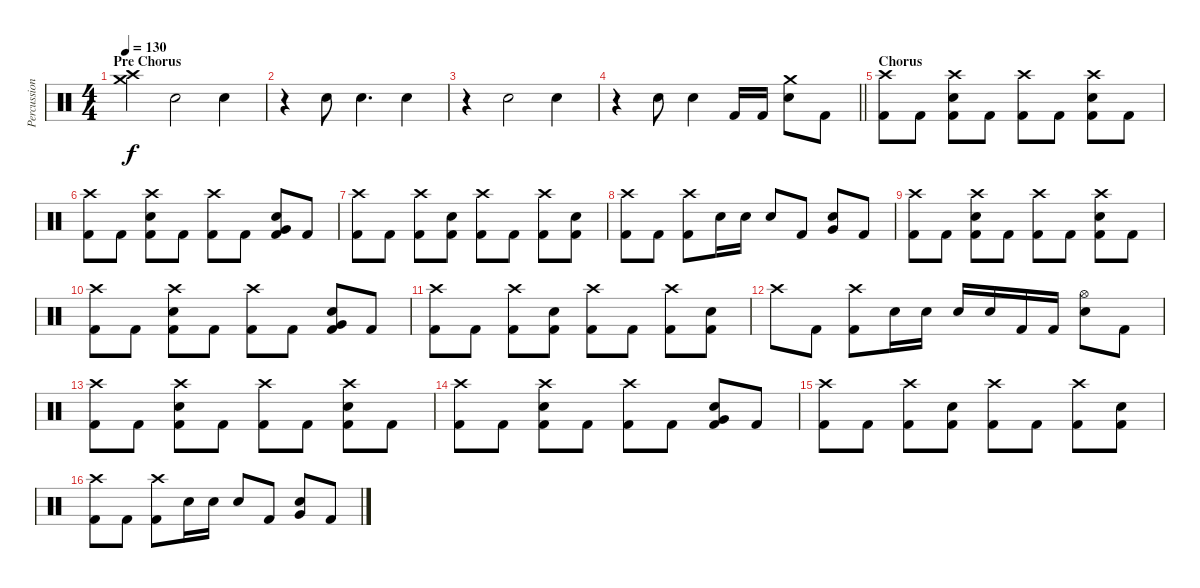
\track ("Percussion" "Percussion") {instrument percussion}
\staff {score}
\articulation defaults
\ts (4 4)
\section ("" "Pre Chorus")
\tempo 130
\clef neutral
\ks c
("Crash high (hit)" "Crash medium (hit)").4{dy f} "Hand Clap (hit)".2 "Hand Clap (hit)".4 |
r.4 "Hand Clap (hit)".8 "Hand Clap (hit)".4{d} "Hand Clap (hit)".4 |
r.4 "Hand Clap (hit)".2 "Hand Clap (hit)".4 |
\barLineRight lightlight
r.4 "Hand Clap (hit)".8 "Hand Clap (hit)".4 "Kick (hit) 2".16 "Kick (hit) 2".16 ("Crash medium (hit)" "Electric Snare (hit)").8 "Kick (hit) 2".8 |
\section ("" "Chorus")
("Crash high (hit)" "Kick (hit) 2").8 "Kick (hit) 2".8 ("Crash high (hit)" "Electric Snare (hit)" "Kick (hit) 2").8 "Kick (hit) 2".8 ("Crash high (hit)" "Kick (hit) 2").8 "Kick (hit) 2".8 ("Crash high (hit)" "Electric Snare (hit)" "Kick (hit) 2").8 "Kick (hit) 2".8 |
("Crash high (hit)" "Kick (hit) 2").8 "Kick (hit) 2".8 ("Crash high (hit)" "Electric Snare (hit)" "Kick (hit) 2").8 "Kick (hit) 2".8 ("Crash high (hit)" "Kick (hit) 2").8 "Kick (hit) 2".8 ("Very Low Tom (hit)" "Electric Snare (hit)" "Kick (hit) 2").8 "Kick (hit) 2".8 |
("Crash high (hit)" "Kick (hit) 2").8 "Kick (hit) 2".8 ("Crash high (hit)" "Kick (hit) 2").8 ("Electric Snare (hit)" "Kick (hit) 2").8 ("Crash high (hit)" "Kick (hit) 2").8 "Kick (hit) 2".8 ("Crash high (hit)" "Kick (hit) 2").8 ("Electric Snare (hit)" "Kick (hit) 2").8 |
("Crash high (hit)" "Kick (hit) 2").8 "Kick (hit) 2".8 ("Crash high (hit)" "Kick (hit) 2").8 "Electric Snare (hit)".16 "Electric Snare (hit)".16 "Electric Snare (hit)".8 "Kick (hit) 2".8 ("Very Low Tom (hit)" "Electric Snare (hit)").8 "Kick (hit) 2".8 |
("Crash high (hit)" "Kick (hit) 2").8 "Kick (hit) 2".8 ("Crash high (hit)" "Electric Snare (hit)" "Kick (hit) 2").8 "Kick (hit) 2".8 ("Crash high (hit)" "Kick (hit) 2").8 "Kick (hit) 2".8 ("Crash high (hit)" "Electric Snare (hit)" "Kick (hit) 2").8 "Kick (hit) 2".8 |
("Crash high (hit)" "Kick (hit) 2").8 "Kick (hit) 2".8 ("Crash high (hit)" "Electric Snare (hit)" "Kick (hit) 2").8 "Kick (hit) 2".8 ("Crash high (hit)" "Kick (hit) 2").8 "Kick (hit) 2".8 ("Very Low Tom (hit)" "Electric Snare (hit)" "Kick (hit) 2").8 "Kick (hit) 2".8 |
("Crash high (hit)" "Kick (hit) 2").8 "Kick (hit) 2".8 ("Crash high (hit)" "Kick (hit) 2").8 ("Electric Snare (hit)" "Kick (hit) 2").8 ("Crash high (hit)" "Kick (hit) 2").8 "Kick (hit) 2".8 ("Crash high (hit)" "Kick (hit) 2").8 ("Electric Snare (hit)" "Kick (hit) 2").8 |
"Crash high (hit)".8 "Kick (hit) 2".8 ("Crash high (hit)" "Kick (hit) 2").8 "Electric Snare (hit)".16 "Electric Snare (hit)".16 "Electric Snare (hit)".16 "Electric Snare (hit)".16 "Kick (hit) 2".16 "Kick (hit) 2".16 ("Hi-Hat (open)" "Electric Snare (hit)").8 "Kick (hit) 2".8 |
("Crash high (hit)" "Kick (hit) 2").8 "Kick (hit) 2".8 ("Crash high (hit)" "Electric Snare (hit)" "Kick (hit) 2").8 "Kick (hit) 2".8 ("Crash high (hit)" "Kick (hit) 2").8 "Kick (hit) 2".8 ("Crash high (hit)" "Electric Snare (hit)" "Kick (hit) 2").8 "Kick (hit) 2".8 |
("Crash high (hit)" "Kick (hit) 2").8 "Kick (hit) 2".8 ("Crash high (hit)" "Electric Snare (hit)" "Kick (hit) 2").8 "Kick (hit) 2".8 ("Crash high (hit)" "Kick (hit) 2").8 "Kick (hit) 2".8 ("Very Low Tom (hit)" "Electric Snare (hit)" "Kick (hit) 2").8 "Kick (hit) 2".8 |
("Crash high (hit)" "Kick (hit) 2").8 "Kick (hit) 2".8 ("Crash high (hit)" "Kick (hit) 2").8 ("Electric Snare (hit)" "Kick (hit) 2").8 ("Crash high (hit)" "Kick (hit) 2").8 "Kick (hit) 2".8 ("Crash high (hit)" "Kick (hit) 2").8 ("Electric Snare (hit)" "Kick (hit) 2").8 |
("Crash high (hit)" "Kick (hit) 2").8 "Kick (hit) 2".8 ("Crash high (hit)" "Kick (hit) 2").8 "Electric Snare (hit)".16 "Electric Snare (hit)".16 "Electric Snare (hit)".8 "Kick (hit) 2".8 ("Very Low Tom (hit)" "Electric Snare (hit)").8 "Kick (hit) 2".8
